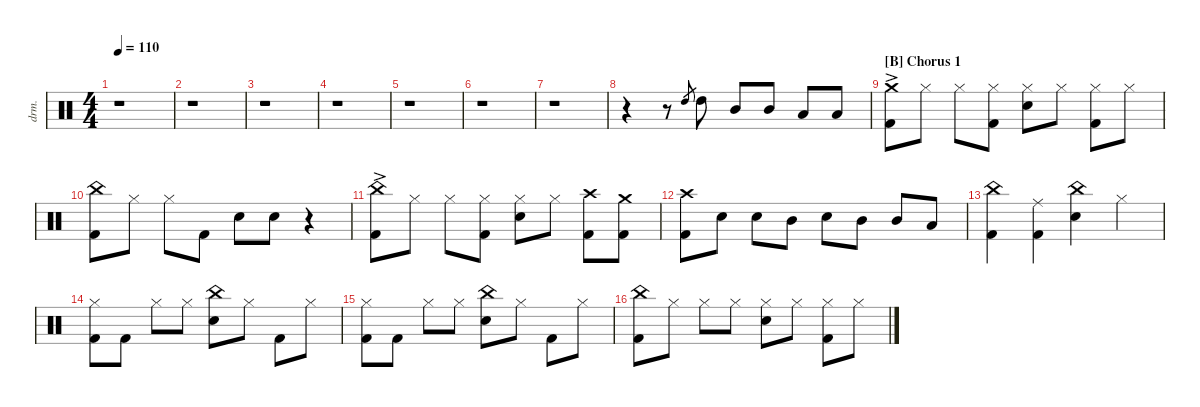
\defaultSystemsLayout 4
\hideDynamics
\bracketExtendMode nobrackets
\otherSystemsTrackNameOrientation horizontal
\track ("Drums" "drm.") {instrument percussion}
\staff {score}
\articulation defaults
\ts (4 4)
\tempo 110
\clef neutral
\ks aminor
r.1{dy f beam Down} |
r.1{beam Down} |
r.1{beam Down} |
r.1{beam Down} |
r.1{beam Down} |
r.1{beam Down} |
r.1{beam Down} |
r.4{beam Down} r.8{beam Down} "High Tom (hit)".8{gr beam Up} "High Tom (hit)".8{beam Down} "Mid Tom (hit)".8{beam Up} "Mid Tom (hit)".8{beam Up} "Low Tom (hit)".8{beam Up} "Low Tom (hit)".8{beam Up} |
\section ("B" "Chorus 1")
("Kick (hit) 2"{ac} "Crash medium (hit)"{ac}).8{beam Down} "Hi-Hat (closed)".8{beam Down} "Hi-Hat (closed)".8{beam Down} ("Hi-Hat (closed)" "Kick (hit) 2").8{beam Down} ("Snare (hit) 2" "Hi-Hat (closed)").8{beam Down} "Hi-Hat (closed)".8{beam Down} ("Hi-Hat (closed)" "Kick (hit) 2").8{beam Down} "Hi-Hat (closed)".8{beam Down} |
("Kick (hit) 2" "China (hit)").8{beam Down} "Hi-Hat (closed)".8{beam Down} "Hi-Hat (closed)".8{beam Down} "Kick (hit) 2".8{beam Down} "Snare (hit) 2".8{beam Down} "Snare (hit) 2".8{beam Down} r.4{beam Down} |
("Kick (hit) 2"{ac} "China (hit)"{ac}).8{beam Down} "Hi-Hat (closed)".8{beam Down} "Hi-Hat (closed)".8{beam Down} ("Hi-Hat (closed)" "Kick (hit) 2").8{beam Down} ("Snare (hit) 2" "Hi-Hat (closed)").8{beam Down} "Hi-Hat (closed)".8{beam Down} ("Kick (hit) 2" "Crash high (hit)").8{beam Down} ("Kick (hit) 2" "Crash medium (hit)").8{beam Down} |
("Kick (hit) 2" "Crash high (hit)").8{beam Down} "Snare (hit) 2".8{beam Down} "Snare (hit) 2".8{beam Down} "Mid Tom (hit)".8{beam Down} "Snare (hit) 2".8{beam Down} "Mid Tom (hit)".8{beam Down} "Mid Tom (hit)".8{beam Up} "Low Tom (hit)".8{beam Up} |
("Kick (hit) 2" "China (hit)").4{beam Down} ("Ride (middle)" "Kick (hit) 2").4{beam Down} ("Snare (hit) 2" "China (hit)").4{beam Down} "Hi-Hat (closed)".4{beam Down} |
("Kick (hit) 2" "Hi-Hat (closed)").8{beam Down} "Kick (hit) 2".8{beam Down} "Hi-Hat (closed)".8{beam Down} "Hi-Hat (closed)".8{beam Down} ("Snare (hit) 2" "China (hit)").8{beam Down} "Hi-Hat (closed)".8{beam Down} "Kick (hit) 2".8{beam Down} "Hi-Hat (closed)".8{beam Down} |
("Kick (hit) 2" "Hi-Hat (closed)").8{beam Down} "Kick (hit) 2".8{beam Down} "Hi-Hat (closed)".8{beam Down} "Hi-Hat (closed)".8{beam Down} ("Snare (hit) 2" "China (hit)").8{beam Down} "Hi-Hat (closed)".8{beam Down} "Kick (hit) 2".8{beam Down} "Hi-Hat (closed)".8{beam Down} |
("Kick (hit) 2" "China (hit)").8{beam Down} "Hi-Hat (closed)".8{beam Down} "Hi-Hat (closed)".8{beam Down} "Hi-Hat (closed)".8{beam Down} ("Hi-Hat (closed)" "Snare (hit) 2").8{beam Down} "Hi-Hat (closed)".8{beam Down} ("Hi-Hat (closed)" "Kick (hit) 2").8{beam Down} "Hi-Hat (closed)".8{beam Down}
